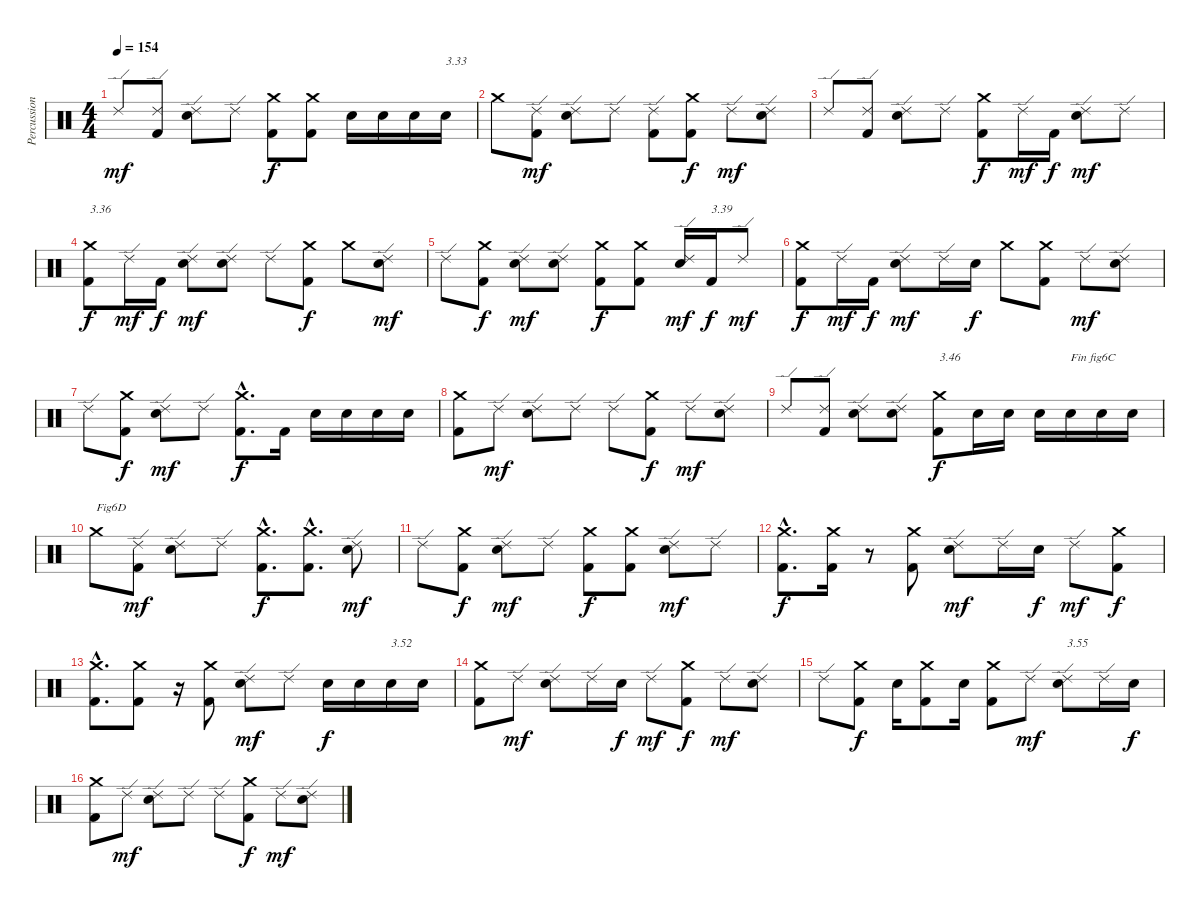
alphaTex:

\track ("Percussions" "Percussion") {instrument percussion}
\staff {score}
\articulation defaults
\ts (4 4)
\tempo 154
\clef neutral
\ks c "Ride (edge) 2".8{dy mf}
("Kick (hit) 2" "Ride (edge) 2").8 ("Electric Snare (hit)" "Ride (edge) 2").8 "Ride (edge) 2".8 ("Kick (hit) 2" "Crash medium (hit)").8{dy f} ("Kick (hit) 2" "Crash medium (hit)").8 "Electric Snare (hit)".16 "Electric Snare (hit)".16 "Electric Snare (hit)".16 "Electric Snare (hit)".16{txt "3.33"} |
"Crash medium (hit)".8 ("Kick (hit) 2" "Ride (edge) 2").8{dy mf} ("Electric Snare (hit)" "Ride (edge) 2").8 "Ride (edge) 2".8 ("Kick (hit) 2" "Ride (edge) 2").8 ("Kick (hit) 2" "Crash medium (hit)").8{dy f} "Ride (edge) 2".8{dy mf} ("Electric Snare (hit)" "Ride (edge) 2").8 |
"Ride (edge) 2".8 ("Kick (hit) 2" "Ride (edge) 2").8 ("Electric Snare (hit)" "Ride (edge) 2").8 "Ride (edge) 2".8 ("Kick (hit) 2" "Crash medium (hit)").8{dy f} "Ride (edge) 2".16{dy mf} "Kick (hit) 2".16{dy f} ("Electric Snare (hit)" "Ride (edge) 2").8{dy mf} "Ride (edge) 2".8 |
("Kick (hit) 2" "Crash medium (hit)").8{txt "3.36" dy f} "Ride (edge) 2".16{dy mf} "Kick (hit) 2".16{dy f} ("Electric Snare (hit)" "Ride (edge) 2").8{dy mf} ("Electric Snare (hit)" "Ride (edge) 2").8 "Ride (edge) 2".8 ("Kick (hit) 2" "Crash medium (hit)").8{dy f} "Crash medium (hit)".8 ("Electric Snare (hit)" "Ride (edge) 2").8{dy mf} |
"Ride (edge) 2".8 ("Kick (hit) 2" "Crash medium (hit)").8{dy f} ("Electric Snare (hit)" "Ride (edge) 2").8{dy mf} ("Electric Snare (hit)" "Ride (edge) 2").8 ("Kick (hit) 2" "Crash medium (hit)").8{dy f} ("Kick (hit) 2" "Crash medium (hit)").8 ("Electric Snare (hit)" "Ride (edge) 2").16{dy mf} "Kick (hit) 2".16{txt "3.39" dy f} "Ride (edge) 2".8{dy mf} |
("Kick (hit) 2" "Crash medium (hit)").8{dy f} "Ride (edge) 2".16{dy mf} "Kick (hit) 2".16{dy f} ("Electric Snare (hit)" "Ride (edge) 2").8{dy mf} "Ride (edge) 2".16 "Electric Snare (hit)".16{dy f} "Crash medium (hit)".8 ("Kick (hit) 2" "Crash medium (hit)").8 "Ride (edge) 2".8{dy mf} ("Electric Snare (hit)" "Ride (edge) 2").8 |
"Ride (edge) 2".8 ("Kick (hit) 2" "Crash medium (hit)").8{dy f} ("Electric Snare (hit)" "Ride (edge) 2").8{dy mf} "Ride (edge) 2".8 ("Kick (hit) 2"{hac} "Crash medium (hit)"{hac}).8{d dy f} "Kick (hit) 2".16 "Electric Snare (hit)".16 "Electric Snare (hit)".16 "Electric Snare (hit)".16 "Electric Snare (hit)".16 |
("Kick (hit) 2" "Crash medium (hit)").8 "Ride (edge) 2".8{dy mf} ("Electric Snare (hit)" "Ride (edge) 2").8 "Ride (edge) 2".8 "Ride (edge) 2".8 ("Kick (hit) 2" "Crash medium (hit)").8{dy f} "Ride (edge) 2".8{dy mf} ("Electric Snare (hit)" "Ride (edge) 2").8 |
"Ride (edge) 2".8 ("Kick (hit) 2" "Ride (edge) 2").8 ("Electric Snare (hit)" "Ride (edge) 2").8 ("Electric Snare (hit)" "Ride (edge) 2").8 ("Kick (hit) 2" "Crash medium (hit)").8{txt "3.46" dy f} "Electric Snare (hit)".16 "Electric Snare (hit)".16 "Electric Snare (hit)".16 "Electric Snare (hit)".16{txt "Fin fig6C"} "Electric Snare (hit)".16 "Electric Snare (hit)".16 |
"Crash medium (hit)".8{txt "Fig6D"} ("Kick (hit) 2" "Ride (edge) 2").8{dy mf} ("Electric Snare (hit)" "Ride (edge) 2").8 "Ride (edge) 2".8 ("Kick (hit) 2"{hac} "Crash medium (hit)"{hac}).8{d dy f} ("Kick (hit) 2"{hac} "Crash medium (hit)"{hac}).8{d} ("Electric Snare (hit)" "Ride (edge) 2").8{dy mf} |
"Ride (edge) 2".8 ("Kick (hit) 2" "Crash medium (hit)").8{dy f} ("Electric Snare (hit)" "Ride (edge) 2").8{dy mf} "Ride (edge) 2".8 ("Kick (hit) 2" "Crash medium (hit)").8{dy f} ("Kick (hit) 2" "Crash medium (hit)").8 ("Electric Snare (hit)" "Ride (edge) 2").8{dy mf} "Ride (edge) 2".8 |
("Kick (hit) 2"{hac} "Crash medium (hit)"{hac}).8{d dy f} ("Kick (hit) 2" "Crash medium (hit)").16 r.8 ("Kick (hit) 2" "Crash medium (hit)").8 ("Electric Snare (hit)" "Ride (edge) 2").8{dy mf} "Ride (edge) 2".16 "Electric Snare (hit)".16{dy f} "Ride (edge) 2".8{dy mf} ("Kick (hit) 2" "Crash medium (hit)").8{dy f} |
("Kick (hit) 2"{hac} "Crash medium (hit)"{hac}).8{d} ("Kick (hit) 2" "Crash medium (hit)").8 r.16 ("Kick (hit) 2" "Crash medium (hit)").8 ("Electric Snare (hit)" "Ride (edge) 2").8{dy mf} "Ride (edge) 2".8 "Electric Snare (hit)".16{dy f} "Electric Snare (hit)".16 "Electric Snare (hit)".16{txt "3.52"} "Electric Snare (hit)".16 |
("Kick (hit) 2" "Crash medium (hit)").8 "Ride (edge) 2".8{dy mf} ("Electric Snare (hit)" "Ride (edge) 2").8 "Ride (edge) 2".16 "Electric Snare (hit)".16{dy f} "Ride (edge) 2".8{dy mf} ("Kick (hit) 2" "Crash medium (hit)").8{dy f} "Ride (edge) 2".8{dy mf} ("Electric Snare (hit)" "Ride (edge) 2").8 |
"Ride (edge) 2".8 ("Kick (hit) 2" "Crash medium (hit)").8{dy f} "Electric Snare (hit)".16 ("Kick (hit) 2" "Crash medium (hit)").8 "Electric Snare (hit)".16 ("Kick (hit) 2" "Crash medium (hit)").8 "Ride (edge) 2".8{dy mf} ("Electric Snare (hit)" "Ride (edge) 2").8{txt "3.55"} "Ride (edge) 2".16 "Electric Snare (hit)".16{dy f} |
("Kick (hit) 2" "Crash medium (hit)").8 "Ride (edge) 2".8{dy mf} ("Electric Snare (hit)" "Ride (edge) 2").8 "Ride (edge) 2".8 "Ride (edge) 2".8 ("Kick (hit) 2" "Crash medium (hit)").8{dy f} "Ride (edge) 2".8{dy mf} ("Electric Snare (hit)" "Ride (edge) 2").8
